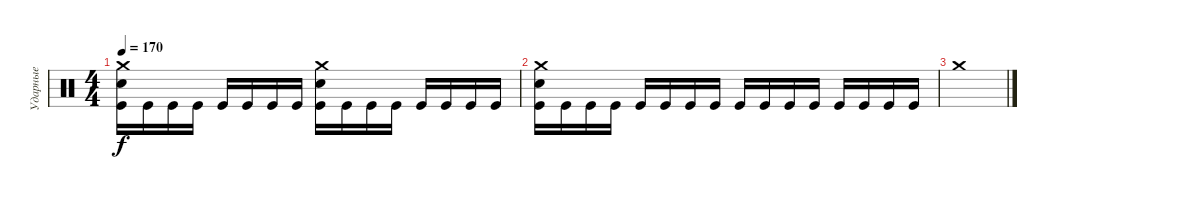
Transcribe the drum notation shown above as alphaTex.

\track ("Ударные" "Ударные") {instrument percussion}
\staff {score}
\articulation defaults
\ts (4 4)
\tempo 170
\clef neutral
\ks c
("Crash medium (hit)" "Electric Snare (hit)" "Kick (hit)").16{dy f} "Kick (hit)".16 "Kick (hit)".16 "Kick (hit)".16 "Kick (hit)".16 "Kick (hit)".16 "Kick (hit)".16 "Kick (hit)".16 ("Crash medium (hit)" "Electric Snare (hit)" "Kick (hit)").16 "Kick (hit)".16 "Kick (hit)".16 "Kick (hit)".16 "Kick (hit)".16 "Kick (hit)".16 "Kick (hit)".16 "Kick (hit)".16 |
("Crash medium (hit)" "Electric Snare (hit)" "Kick (hit)").16 "Kick (hit)".16 "Kick (hit)".16 "Kick (hit)".16 "Kick (hit)".16 "Kick (hit)".16 "Kick (hit)".16 "Kick (hit)".16 "Kick (hit)".16 "Kick (hit)".16 "Kick (hit)".16 "Kick (hit)".16 "Kick (hit)".16 "Kick (hit)".16 "Kick (hit)".16 "Kick (hit)".16 |
"Crash medium (hit)".1
